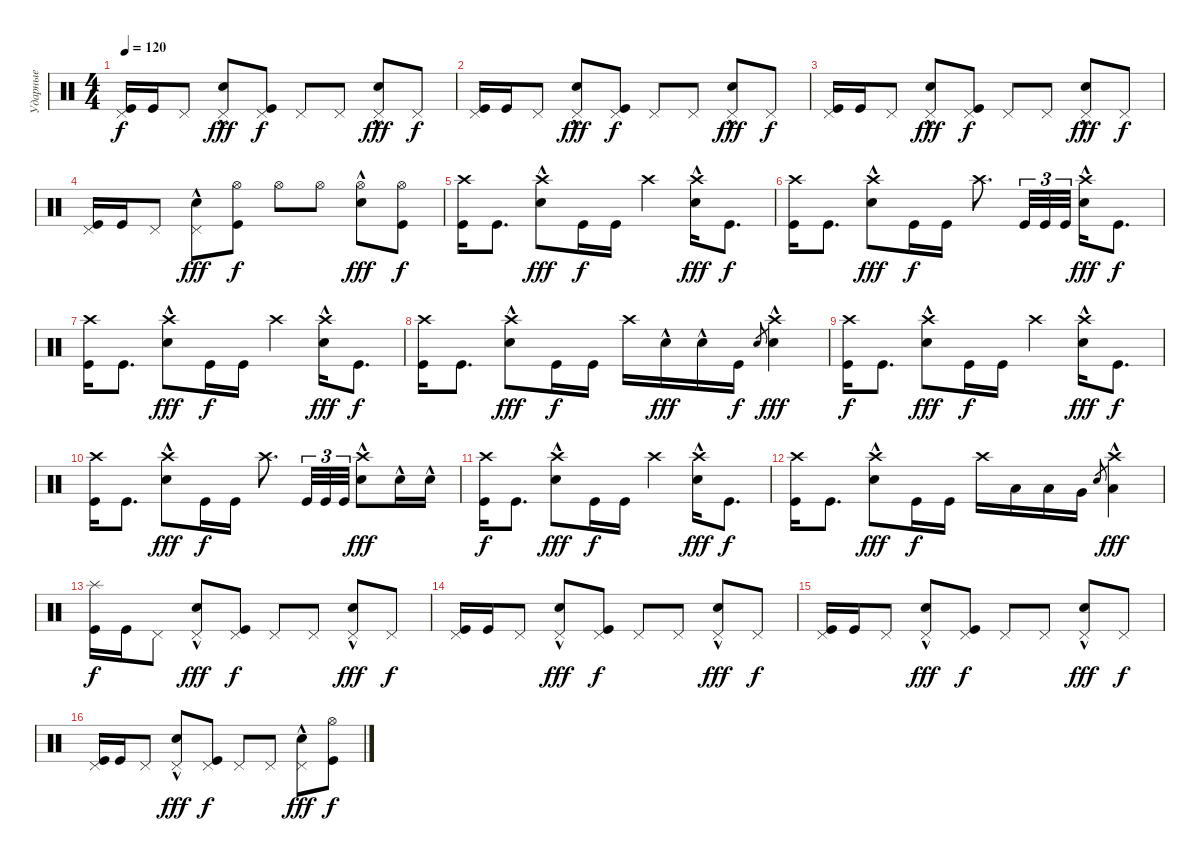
\track ("Ударные" "Ударные") {instrument percussion}
\staff {score}
\articulation defaults
\ts (4 4)
\tempo 120
\clef neutral
\ks c
("Kick (hit)" "Pedal Hi-Hat (hit)").16{dy f} "Kick (hit)".16 "Pedal Hi-Hat (hit)".8 ("Electric Snare (hit)"{hac} "Pedal Hi-Hat (hit)").8{dy fff} ("Kick (hit)" "Pedal Hi-Hat (hit)").8{dy f} "Pedal Hi-Hat (hit)".8 "Pedal Hi-Hat (hit)".8 ("Electric Snare (hit)"{hac} "Pedal Hi-Hat (hit)").8{dy fff} "Pedal Hi-Hat (hit)".8{dy f} |
("Kick (hit)" "Pedal Hi-Hat (hit)").16 "Kick (hit)".16 "Pedal Hi-Hat (hit)".8 ("Electric Snare (hit)"{hac} "Pedal Hi-Hat (hit)").8{dy fff} ("Kick (hit)" "Pedal Hi-Hat (hit)").8{dy f} "Pedal Hi-Hat (hit)".8 "Pedal Hi-Hat (hit)".8 ("Electric Snare (hit)"{hac} "Pedal Hi-Hat (hit)").8{dy fff} "Pedal Hi-Hat (hit)".8{dy f} |
("Kick (hit)" "Pedal Hi-Hat (hit)").16 "Kick (hit)".16 "Pedal Hi-Hat (hit)".8 ("Electric Snare (hit)"{hac} "Pedal Hi-Hat (hit)").8{dy fff} ("Kick (hit)" "Pedal Hi-Hat (hit)").8{dy f} "Pedal Hi-Hat (hit)".8 "Pedal Hi-Hat (hit)".8 ("Electric Snare (hit)"{hac} "Pedal Hi-Hat (hit)").8{dy fff} "Pedal Hi-Hat (hit)".8{dy f} |
("Kick (hit)" "Pedal Hi-Hat (hit)").16 "Kick (hit)".16 "Pedal Hi-Hat (hit)".8 ("Electric Snare (hit)"{hac} "Pedal Hi-Hat (hit)").8{dy fff} ("Kick (hit)" "Hi-Hat (open)").8{dy f} "Hi-Hat (open)".8 "Hi-Hat (open)".8 ("Electric Snare (hit)"{hac} "Hi-Hat (open)").8{dy fff} ("Kick (hit)" "Hi-Hat (open)").8{dy f} |
("Kick (hit)" "Crash high (hit)").16 "Kick (hit)".8{d} ("Electric Snare (hit)"{hac} "Crash high (hit)").8{dy fff} "Kick (hit)".16{dy f} "Kick (hit)".16 "Crash high (hit)".4 ("Electric Snare (hit)"{hac} "Crash high (hit)").16{dy fff} "Kick (hit)".8{d dy f} |
("Kick (hit)" "Crash high (hit)").16 "Kick (hit)".8{d} ("Electric Snare (hit)"{hac} "Crash high (hit)").8{dy fff} "Kick (hit)".16{dy f} "Kick (hit)".16 "Crash high (hit)".8{d} "Kick (hit)".32{tu (3 2)} "Kick (hit)".32{tu (3 2)} "Kick (hit)".32{tu (3 2)} ("Electric Snare (hit)"{hac} "Crash high (hit)").16{dy fff} "Kick (hit)".8{d dy f} |
("Kick (hit)" "Crash high (hit)").16 "Kick (hit)".8{d} ("Electric Snare (hit)"{hac} "Crash high (hit)").8{dy fff} "Kick (hit)".16{dy f} "Kick (hit)".16 "Crash high (hit)".4 ("Electric Snare (hit)"{hac} "Crash high (hit)").16{dy fff} "Kick (hit)".8{d dy f} |
("Kick (hit)" "Crash high (hit)").16 "Kick (hit)".8{d} ("Electric Snare (hit)"{hac} "Crash high (hit)").8{dy fff} "Kick (hit)".16{dy f} "Kick (hit)".16 "Crash high (hit)".16 "Electric Snare (hit)"{hac}.16{dy fff} "Electric Snare (hit)"{hac}.16 "Kick (hit)".16{dy f} "Electric Snare (hit)".8{gr} ("Electric Snare (hit)"{hac} "Crash high (hit)").4{dy fff} |
("Kick (hit)" "Crash high (hit)").16{dy f} "Kick (hit)".8{d} ("Electric Snare (hit)"{hac} "Crash high (hit)").8{dy fff} "Kick (hit)".16{dy f} "Kick (hit)".16 "Crash high (hit)".4 ("Electric Snare (hit)"{hac} "Crash high (hit)").16{dy fff} "Kick (hit)".8{d dy f} |
("Kick (hit)" "Crash high (hit)").16 "Kick (hit)".8{d} ("Electric Snare (hit)"{hac} "Crash high (hit)").8{dy fff} "Kick (hit)".16{dy f} "Kick (hit)".16 "Crash high (hit)".8{d} "Kick (hit)".32{tu (3 2)} "Kick (hit)".32{tu (3 2)} "Kick (hit)".32{tu (3 2)} ("Electric Snare (hit)"{hac} "Crash high (hit)").8{dy fff} "Electric Snare (hit)"{hac}.16 "Electric Snare (hit)"{hac}.16 |
("Kick (hit)" "Crash high (hit)").16{dy f} "Kick (hit)".8{d} ("Electric Snare (hit)"{hac} "Crash high (hit)").8{dy fff} "Kick (hit)".16{dy f} "Kick (hit)".16 "Crash high (hit)".4 ("Electric Snare (hit)"{hac} "Crash high (hit)").16{dy fff} "Kick (hit)".8{d dy f} |
("Kick (hit)" "Crash high (hit)").16 "Kick (hit)".8{d} ("Electric Snare (hit)"{hac} "Crash high (hit)").8{dy fff} "Kick (hit)".16{dy f} "Kick (hit)".16 "Crash high (hit)".16 "Low Tom (hit)".16 "Low Tom (hit)".16 "Very Low Tom (hit)".16 "Electric Snare (hit)".8{gr} ("Low Floor Tom (hit)"{hac} "Crash high (hit)").4{dy fff} |
("Kick (hit)" "Splash (hit)").16{dy f} "Kick (hit)".16 "Pedal Hi-Hat (hit)".8 ("Electric Snare (hit)"{hac} "Pedal Hi-Hat (hit)").8{dy fff} ("Kick (hit)" "Pedal Hi-Hat (hit)").8{dy f} "Pedal Hi-Hat (hit)".8 "Pedal Hi-Hat (hit)".8 ("Electric Snare (hit)"{hac} "Pedal Hi-Hat (hit)").8{dy fff} "Pedal Hi-Hat (hit)".8{dy f} |
("Kick (hit)" "Pedal Hi-Hat (hit)").16 "Kick (hit)".16 "Pedal Hi-Hat (hit)".8 ("Electric Snare (hit)"{hac} "Pedal Hi-Hat (hit)").8{dy fff} ("Kick (hit)" "Pedal Hi-Hat (hit)").8{dy f} "Pedal Hi-Hat (hit)".8 "Pedal Hi-Hat (hit)".8 ("Electric Snare (hit)"{hac} "Pedal Hi-Hat (hit)").8{dy fff} "Pedal Hi-Hat (hit)".8{dy f} |
("Kick (hit)" "Pedal Hi-Hat (hit)").16 "Kick (hit)".16 "Pedal Hi-Hat (hit)".8 ("Electric Snare (hit)"{hac} "Pedal Hi-Hat (hit)").8{dy fff} ("Kick (hit)" "Pedal Hi-Hat (hit)").8{dy f} "Pedal Hi-Hat (hit)".8 "Pedal Hi-Hat (hit)".8 ("Electric Snare (hit)"{hac} "Pedal Hi-Hat (hit)").8{dy fff} "Pedal Hi-Hat (hit)".8{dy f} |
("Kick (hit)" "Pedal Hi-Hat (hit)").16 "Kick (hit)".16 "Pedal Hi-Hat (hit)".8 ("Electric Snare (hit)"{hac} "Pedal Hi-Hat (hit)").8{dy fff} ("Kick (hit)" "Pedal Hi-Hat (hit)").8{dy f} "Pedal Hi-Hat (hit)".8 "Pedal Hi-Hat (hit)".8 ("Electric Snare (hit)"{hac} "Pedal Hi-Hat (hit)").8{dy fff} ("Kick (hit)" "Hi-Hat (open)").8{dy f}
